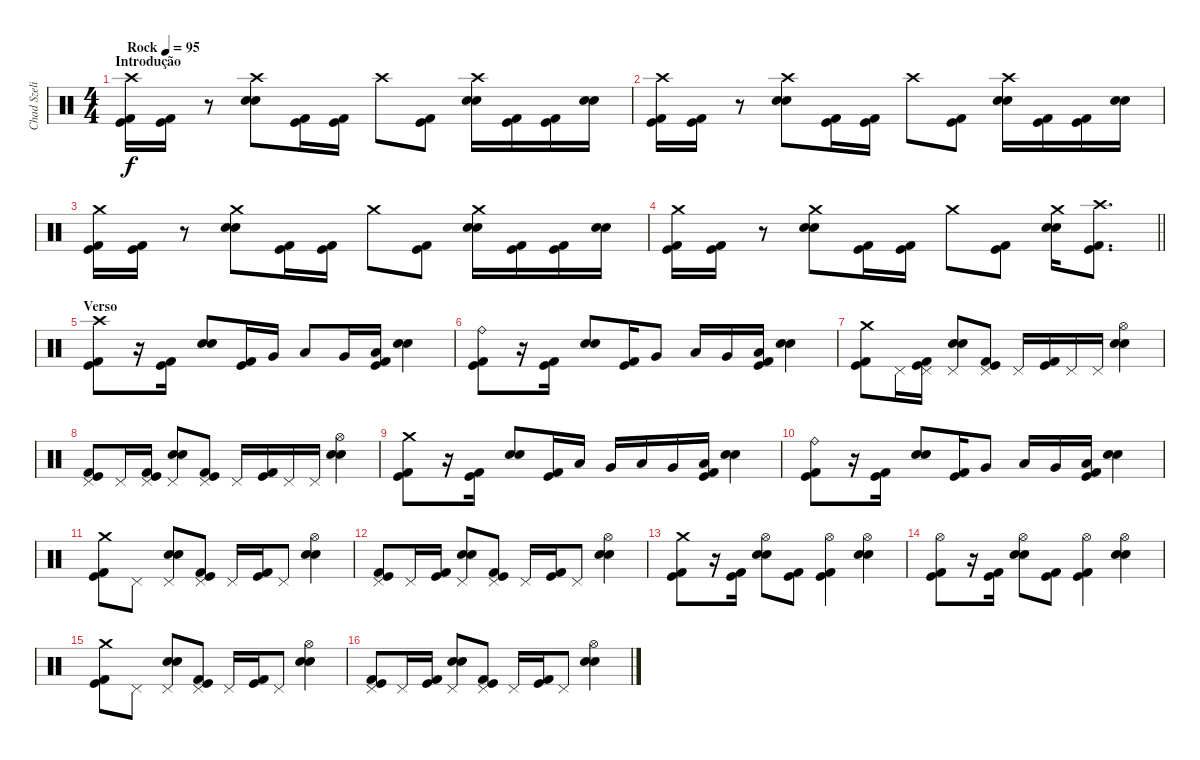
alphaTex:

\track ("Chad Szeliga" "Chad Szeli") {instrument percussion}
\staff {score}
\articulation defaults
\ts (4 4)
\section ("" "Introdução")
\tempo (95 "Rock")
\clef neutral
\ks c
("Crash high (hit)" "Kick (hit) 2" "Kick (hit)").16{dy f} ("Kick (hit) 2" "Kick (hit)").16 r.8 ("Crash high (hit)" "Snare (hit) 2" "Snare (hit) 2").8 ("Kick (hit) 2" "Kick (hit)").16 ("Kick (hit) 2" "Kick (hit)").16 "Crash high (hit)".8 ("Kick (hit) 2" "Kick (hit)").8 ("Crash high (hit)" "Snare (hit) 2" "Snare (hit) 2").16 ("Kick (hit) 2" "Kick (hit)").16 ("Kick (hit) 2" "Kick (hit)").16 ("Snare (hit) 2" "Snare (hit) 2").16 |
("Crash high (hit)" "Kick (hit) 2" "Kick (hit)").16 ("Kick (hit) 2" "Kick (hit)").16 r.8 ("Crash high (hit)" "Snare (hit) 2" "Snare (hit) 2").8 ("Kick (hit) 2" "Kick (hit)").16 ("Kick (hit) 2" "Kick (hit)").16 "Crash high (hit)".8 ("Kick (hit) 2" "Kick (hit)").8 ("Crash high (hit)" "Snare (hit) 2" "Snare (hit) 2").16 ("Kick (hit) 2" "Kick (hit)").16 ("Kick (hit) 2" "Kick (hit)").16 ("Snare (hit) 2" "Snare (hit) 2").16 |
("Crash medium (hit)" "Kick (hit) 2" "Kick (hit)").16 ("Kick (hit) 2" "Kick (hit)").16 r.8 ("Crash medium (hit)" "Snare (hit) 2" "Snare (hit) 2").8 ("Kick (hit) 2" "Kick (hit)").16 ("Kick (hit) 2" "Kick (hit)").16 "Crash medium (hit)".8 ("Kick (hit) 2" "Kick (hit)").8 ("Crash medium (hit)" "Snare (hit) 2" "Snare (hit) 2").16 ("Kick (hit) 2" "Kick (hit)").16 ("Kick (hit) 2" "Kick (hit)").16 ("Snare (hit) 2" "Snare (hit) 2").16 |
\barLineRight lightlight
("Crash medium (hit)" "Kick (hit) 2" "Kick (hit)").16 ("Kick (hit) 2" "Kick (hit)").16 r.8 ("Crash medium (hit)" "Snare (hit) 2" "Snare (hit) 2").8 ("Kick (hit) 2" "Kick (hit)").16 ("Kick (hit) 2" "Kick (hit)").16 "Crash medium (hit)".8 ("Kick (hit) 2" "Kick (hit)").8 ("Crash medium (hit)" "Snare (hit) 2" "Snare (hit) 2").16 ("Crash high (hit)" "Kick (hit) 2" "Kick (hit)").8{d} |
\section ("" "Verso")
("Crash high (hit)" "Kick (hit) 2" "Kick (hit)").8 r.16 ("Kick (hit) 2" "Kick (hit)").16{beam Down} ("Snare (hit) 2" "Snare (hit) 2").8 ("Kick (hit) 2" "Kick (hit)").16 "Very Low Tom (hit)".16 "Low Tom (hit)".8 "Very Low Tom (hit)".16 ("Kick (hit) 2" "Kick (hit)" "Low Tom (hit)").16 ("Snare (hit) 2" "Snare (hit) 2").4 |
("Ride (bell)" "Kick (hit) 2" "Kick (hit)").8 r.16 ("Kick (hit) 2" "Kick (hit)").16{beam Down} ("Snare (hit) 2" "Snare (hit) 2").8 ("Kick (hit) 2" "Kick (hit)").16 "Very Low Tom (hit)".8 "Low Tom (hit)".16 "Very Low Tom (hit)".16 ("Kick (hit) 2" "Kick (hit)" "Low Tom (hit)").16 ("Snare (hit) 2" "Snare (hit) 2").4 |
("Crash medium (hit)" "Kick (hit) 2" "Kick (hit)").8 "Pedal Hi-Hat (hit)".16 ("Kick (hit) 2" "Kick (hit)" "Pedal Hi-Hat (hit)").16 ("Snare (hit) 2" "Snare (hit) 2" "Pedal Hi-Hat (hit)").8 ("Kick (hit) 2" "Kick (hit)" "Pedal Hi-Hat (hit)").8 "Pedal Hi-Hat (hit)".16 ("Kick (hit) 2" "Kick (hit)").16 "Pedal Hi-Hat (hit)".16 "Pedal Hi-Hat (hit)".16 ("Snare (hit) 2" "Snare (hit) 2" "Hi-Hat (open)").4 |
("Kick (hit) 2" "Kick (hit)" "Pedal Hi-Hat (hit)").8 "Pedal Hi-Hat (hit)".16 ("Kick (hit) 2" "Kick (hit)" "Pedal Hi-Hat (hit)").16 ("Snare (hit) 2" "Snare (hit) 2" "Pedal Hi-Hat (hit)").8 ("Kick (hit) 2" "Kick (hit)" "Pedal Hi-Hat (hit)").8 "Pedal Hi-Hat (hit)".16 ("Kick (hit) 2" "Kick (hit)").16 "Pedal Hi-Hat (hit)".16 "Pedal Hi-Hat (hit)".16 ("Snare (hit) 2" "Snare (hit) 2" "Hi-Hat (open)").4 |
("Crash medium (hit)" "Kick (hit) 2" "Kick (hit)").8 r.16 ("Kick (hit) 2" "Kick (hit)").16{beam Down} ("Snare (hit) 2" "Snare (hit) 2").8 ("Kick (hit) 2" "Kick (hit)").16 "Low Tom (hit)".16 "Very Low Tom (hit)".16 "Low Tom (hit)".16 "Very Low Tom (hit)".16 ("Kick (hit) 2" "Kick (hit)" "Low Tom (hit)").16 ("Snare (hit) 2" "Snare (hit) 2").4 |
("Ride (bell)" "Kick (hit) 2" "Kick (hit)").8 r.16 ("Kick (hit) 2" "Kick (hit)").16{beam Down} ("Snare (hit) 2" "Snare (hit) 2").8 ("Kick (hit) 2" "Kick (hit)").16 "Very Low Tom (hit)".8 "Low Tom (hit)".16 "Very Low Tom (hit)".16 ("Kick (hit) 2" "Kick (hit)" "Low Tom (hit)").16 ("Snare (hit) 2" "Snare (hit) 2").4 |
("Crash medium (hit)" "Kick (hit) 2" "Kick (hit)").8 "Pedal Hi-Hat (hit)".8 ("Snare (hit) 2" "Snare (hit) 2" "Pedal Hi-Hat (hit)").8 ("Kick (hit) 2" "Kick (hit)" "Pedal Hi-Hat (hit)").8 "Pedal Hi-Hat (hit)".16 ("Kick (hit) 2" "Kick (hit)").16 "Pedal Hi-Hat (hit)".8 ("Snare (hit) 2" "Snare (hit) 2" "Hi-Hat (open)").4 |
("Kick (hit) 2" "Kick (hit)" "Pedal Hi-Hat (hit)").8 "Pedal Hi-Hat (hit)".16 ("Kick (hit) 2" "Kick (hit)").16 ("Snare (hit) 2" "Snare (hit) 2" "Pedal Hi-Hat (hit)").8 ("Kick (hit) 2" "Kick (hit)" "Pedal Hi-Hat (hit)").8 "Pedal Hi-Hat (hit)".16 ("Kick (hit) 2" "Kick (hit)").16 "Pedal Hi-Hat (hit)".8 ("Snare (hit) 2" "Snare (hit) 2" "Hi-Hat (open)").4 |
("Crash medium (hit)" "Kick (hit) 2" "Kick (hit)").8 r.16 ("Kick (hit) 2" "Kick (hit)").16{beam Down} ("Snare (hit) 2" "Snare (hit) 2" "Hi-Hat (open)").8 ("Kick (hit) 2" "Kick (hit)").8 ("Kick (hit) 2" "Kick (hit)" "Hi-Hat (open)").4 ("Snare (hit) 2" "Snare (hit) 2" "Hi-Hat (open)").4 |
("Kick (hit) 2" "Kick (hit)" "Hi-Hat (open)").8 r.16 ("Kick (hit) 2" "Kick (hit)").16{beam Down} ("Snare (hit) 2" "Snare (hit) 2" "Hi-Hat (open)").8 ("Kick (hit) 2" "Kick (hit)").8 ("Kick (hit) 2" "Kick (hit)" "Hi-Hat (open)").4 ("Snare (hit) 2" "Snare (hit) 2" "Hi-Hat (open)").4 |
("Crash medium (hit)" "Kick (hit) 2" "Kick (hit)").8 "Pedal Hi-Hat (hit)".8 ("Snare (hit) 2" "Snare (hit) 2" "Pedal Hi-Hat (hit)").8 ("Kick (hit) 2" "Kick (hit)" "Pedal Hi-Hat (hit)").8 "Pedal Hi-Hat (hit)".16 ("Kick (hit) 2" "Kick (hit)").16 "Pedal Hi-Hat (hit)".8 ("Snare (hit) 2" "Snare (hit) 2" "Hi-Hat (open)").4 |
("Kick (hit) 2" "Kick (hit)" "Pedal Hi-Hat (hit)").8 "Pedal Hi-Hat (hit)".16 ("Kick (hit) 2" "Kick (hit)").16 ("Snare (hit) 2" "Snare (hit) 2" "Pedal Hi-Hat (hit)").8 ("Kick (hit) 2" "Kick (hit)" "Pedal Hi-Hat (hit)").8 "Pedal Hi-Hat (hit)".16 ("Kick (hit) 2" "Kick (hit)").16 "Pedal Hi-Hat (hit)".8 ("Snare (hit) 2" "Snare (hit) 2" "Hi-Hat (open)").4
